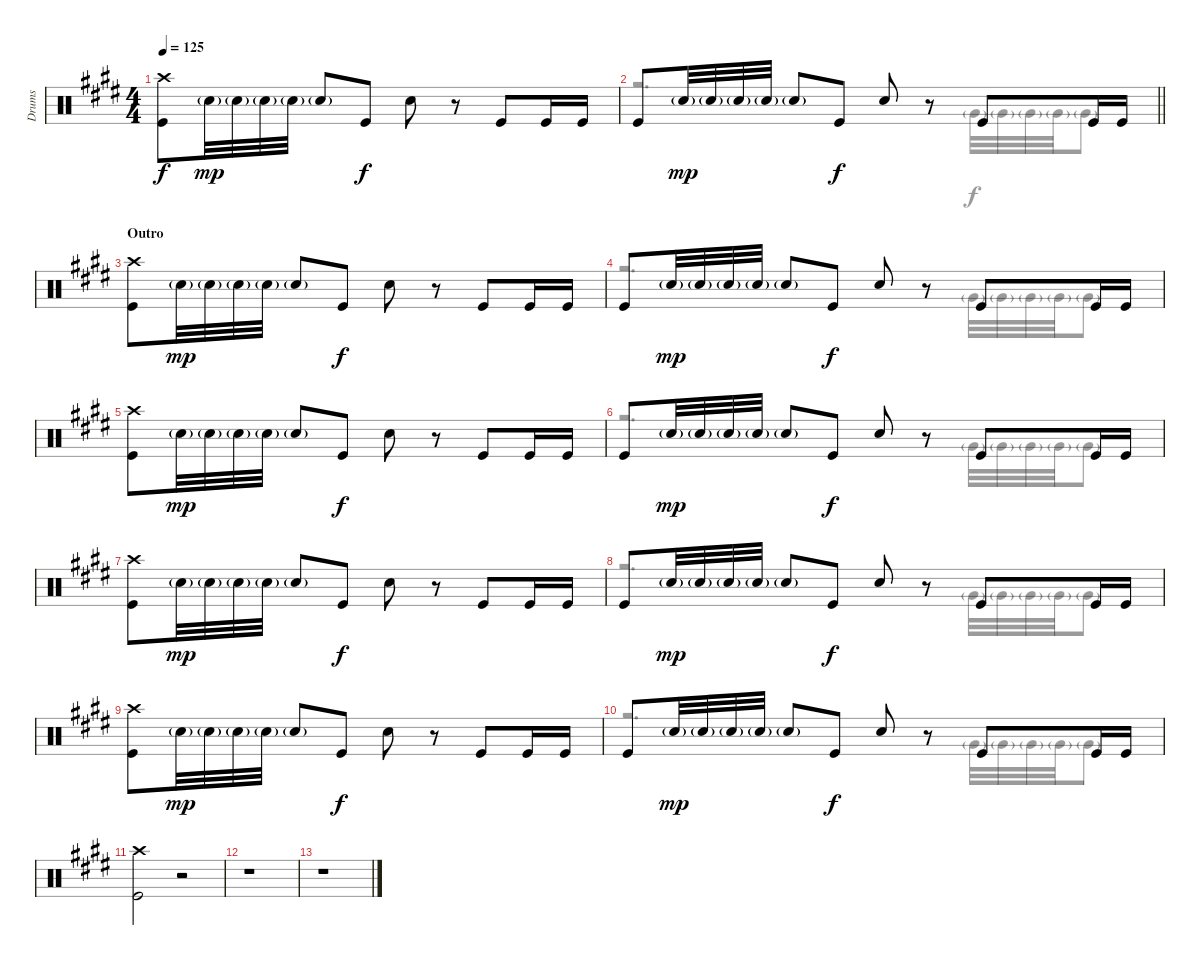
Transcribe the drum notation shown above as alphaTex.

\track ("Drums" "Drums") {instrument percussion}
\staff {score}
\articulation defaults
\voice
\ts (4 4)
\tempo 125
\clef neutral
\ks c#minor
("Crash high (hit)" "Kick (hit)").8{dy f} "Electric Snare (hit)"{g}.32{dy mp} "Electric Snare (hit)"{g}.32 "Electric Snare (hit)"{g}.32 "Electric Snare (hit)"{g}.32 "Electric Snare (hit)"{g}.8 "Kick (hit)".8{dy f} "Electric Snare (hit)".8 r.8 "Kick (hit)".8 "Kick (hit)".16 "Kick (hit)".16 |
\barLineRight lightlight "Kick (hit)".8 "Electric Snare (hit)"{g}.32{dy mp} "Electric Snare (hit)"{g}.32 "Electric Snare (hit)"{g}.32 "Electric Snare (hit)"{g}.32 "Electric Snare (hit)"{g}.8 "Kick (hit)".8{dy f} "Electric Snare (hit)".8
r.8 "Kick (hit)".8 "Kick (hit)".16 "Kick (hit)".16 |
\section ("" "Outro")
("Crash high (hit)" "Kick (hit)").8 "Electric Snare (hit)"{g}.32{dy mp} "Electric Snare (hit)"{g}.32 "Electric Snare (hit)"{g}.32 "Electric Snare (hit)"{g}.32 "Electric Snare (hit)"{g}.8 "Kick (hit)".8{dy f} "Electric Snare (hit)".8 r.8 "Kick (hit)".8 "Kick (hit)".16 "Kick (hit)".16 |
"Kick (hit)".8 "Electric Snare (hit)"{g}.32{dy mp} "Electric Snare (hit)"{g}.32 "Electric Snare (hit)"{g}.32 "Electric Snare (hit)"{g}.32 "Electric Snare (hit)"{g}.8 "Kick (hit)".8{dy f} "Electric Snare (hit)".8 r.8 "Kick (hit)".8 "Kick (hit)".16 "Kick (hit)".16 |
("Crash high (hit)" "Kick (hit)").8 "Electric Snare (hit)"{g}.32{dy mp} "Electric Snare (hit)"{g}.32 "Electric Snare (hit)"{g}.32 "Electric Snare (hit)"{g}.32 "Electric Snare (hit)"{g}.8 "Kick (hit)".8{dy f} "Electric Snare (hit)".8 r.8 "Kick (hit)".8 "Kick (hit)".16 "Kick (hit)".16 |
"Kick (hit)".8 "Electric Snare (hit)"{g}.32{dy mp} "Electric Snare (hit)"{g}.32 "Electric Snare (hit)"{g}.32 "Electric Snare (hit)"{g}.32 "Electric Snare (hit)"{g}.8 "Kick (hit)".8{dy f} "Electric Snare (hit)".8 r.8 "Kick (hit)".8 "Kick (hit)".16 "Kick (hit)".16 |
("Crash high (hit)" "Kick (hit)").8 "Electric Snare (hit)"{g}.32{dy mp} "Electric Snare (hit)"{g}.32 "Electric Snare (hit)"{g}.32 "Electric Snare (hit)"{g}.32 "Electric Snare (hit)"{g}.8 "Kick (hit)".8{dy f} "Electric Snare (hit)".8 r.8 "Kick (hit)".8 "Kick (hit)".16 "Kick (hit)".16 |
"Kick (hit)".8 "Electric Snare (hit)"{g}.32{dy mp} "Electric Snare (hit)"{g}.32 "Electric Snare (hit)"{g}.32 "Electric Snare (hit)"{g}.32 "Electric Snare (hit)"{g}.8 "Kick (hit)".8{dy f} "Electric Snare (hit)".8 r.8 "Kick (hit)".8 "Kick (hit)".16 "Kick (hit)".16 |
("Crash high (hit)" "Kick (hit)").8 "Electric Snare (hit)"{g}.32{dy mp} "Electric Snare (hit)"{g}.32 "Electric Snare (hit)"{g}.32 "Electric Snare (hit)"{g}.32 "Electric Snare (hit)"{g}.8 "Kick (hit)".8{dy f} "Electric Snare (hit)".8 r.8 "Kick (hit)".8 "Kick (hit)".16 "Kick (hit)".16 |
"Kick (hit)".8 "Electric Snare (hit)"{g}.32{dy mp} "Electric Snare (hit)"{g}.32 "Electric Snare (hit)"{g}.32 "Electric Snare (hit)"{g}.32 "Electric Snare (hit)"{g}.8 "Kick (hit)".8{dy f} "Electric Snare (hit)".8 r.8 "Kick (hit)".8 "Kick (hit)".16 "Kick (hit)".16 |
("Crash high (hit)" "Kick (hit)").2 r.2 |
r.1 |
r.1
\voice
\clef neutral
\ottava regular
\simile none
\ks c#minor
|
\barLineRight lightlight
r.2{d} "Very Low Tom (hit)"{g}.32 "Very Low Tom (hit)"{g}.32 "Very Low Tom (hit)"{g}.32 "Very Low Tom (hit)"{g}.32 "Very Low Tom (hit)"{g}.8 |
|
r.2{d} "Very Low Tom (hit)"{g}.32 "Very Low Tom (hit)"{g}.32 "Very Low Tom (hit)"{g}.32 "Very Low Tom (hit)"{g}.32 "Very Low Tom (hit)"{g}.8 |
|
r.2{d} "Very Low Tom (hit)"{g}.32 "Very Low Tom (hit)"{g}.32 "Very Low Tom (hit)"{g}.32 "Very Low Tom (hit)"{g}.32 "Very Low Tom (hit)"{g}.8 |
|
r.2{d} "Very Low Tom (hit)"{g}.32 "Very Low Tom (hit)"{g}.32 "Very Low Tom (hit)"{g}.32 "Very Low Tom (hit)"{g}.32 "Very Low Tom (hit)"{g}.8 |
|
r.2{d} "Very Low Tom (hit)"{g}.32 "Very Low Tom (hit)"{g}.32 "Very Low Tom (hit)"{g}.32 "Very Low Tom (hit)"{g}.32 "Very Low Tom (hit)"{g}.8 |
|
|
